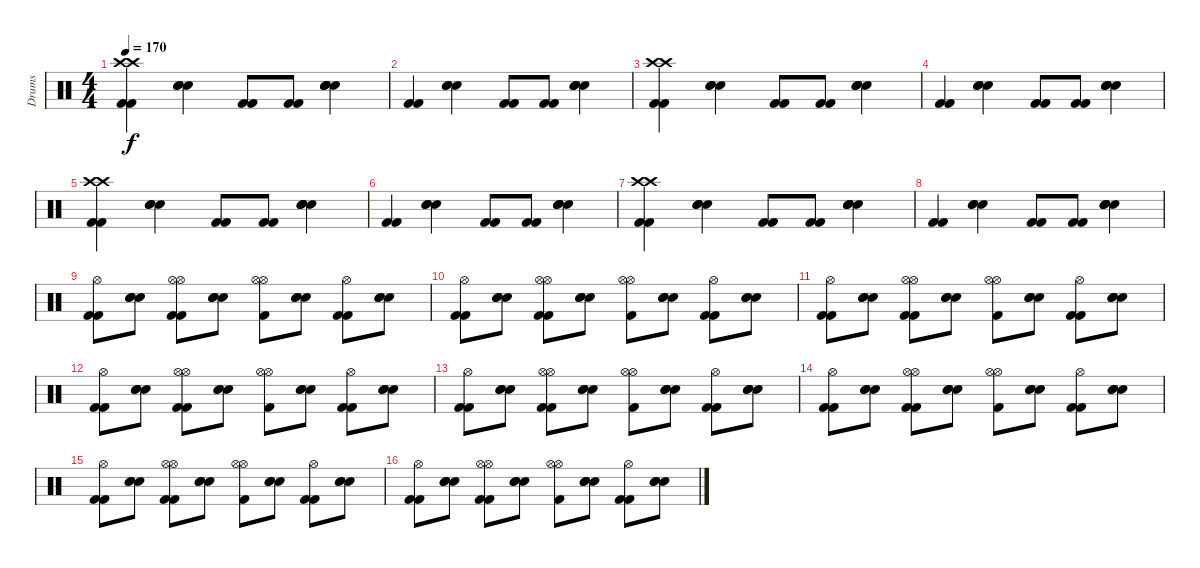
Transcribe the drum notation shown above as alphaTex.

\track ("Drums" "Drums") {instrument percussion}
\staff {score}
\articulation defaults
\ts (4 4)
\tempo 170
\clef neutral
\ks c
("Kick (hit) 2" "Kick (hit) 2" "Crash high (hit)" "Crash high (hit)").4{dy f} ("Snare (hit) 2" "Electric Snare (hit)" "Electric Snare (hit)").4 ("Kick (hit) 2" "Kick (hit) 2").8 ("Kick (hit) 2" "Kick (hit) 2").8 ("Snare (hit) 2" "Electric Snare (hit)" "Electric Snare (hit)" "Snare (hit) 2").4 |
("Kick (hit) 2" "Kick (hit) 2").4 ("Snare (hit) 2" "Electric Snare (hit)" "Electric Snare (hit)").4 ("Kick (hit) 2" "Kick (hit) 2").8 ("Kick (hit) 2" "Kick (hit) 2").8 ("Snare (hit) 2" "Electric Snare (hit)" "Electric Snare (hit)" "Snare (hit) 2").4 |
("Kick (hit) 2" "Kick (hit) 2" "Crash high (hit)" "Crash high (hit)").4 ("Snare (hit) 2" "Electric Snare (hit)" "Electric Snare (hit)").4 ("Kick (hit) 2" "Kick (hit) 2").8 ("Kick (hit) 2" "Kick (hit) 2").8 ("Snare (hit) 2" "Electric Snare (hit)" "Electric Snare (hit)" "Snare (hit) 2").4 |
("Kick (hit) 2" "Kick (hit) 2").4 ("Snare (hit) 2" "Electric Snare (hit)" "Electric Snare (hit)").4 ("Kick (hit) 2" "Kick (hit) 2").8 ("Kick (hit) 2" "Kick (hit) 2").8 ("Snare (hit) 2" "Electric Snare (hit)" "Electric Snare (hit)" "Snare (hit) 2").4 |
("Kick (hit) 2" "Kick (hit) 2" "Crash high (hit)" "Crash high (hit)").4 ("Snare (hit) 2" "Electric Snare (hit)" "Electric Snare (hit)").4 ("Kick (hit) 2" "Kick (hit) 2").8 ("Kick (hit) 2" "Kick (hit) 2").8 ("Snare (hit) 2" "Electric Snare (hit)" "Electric Snare (hit)" "Snare (hit) 2").4 |
("Kick (hit) 2" "Kick (hit) 2").4 ("Snare (hit) 2" "Electric Snare (hit)" "Electric Snare (hit)").4 ("Kick (hit) 2" "Kick (hit) 2").8 ("Kick (hit) 2" "Kick (hit) 2").8 ("Snare (hit) 2" "Electric Snare (hit)" "Electric Snare (hit)" "Snare (hit) 2").4 |
("Kick (hit) 2" "Kick (hit) 2" "Crash high (hit)" "Crash high (hit)").4 ("Snare (hit) 2" "Electric Snare (hit)" "Electric Snare (hit)").4 ("Kick (hit) 2" "Kick (hit) 2").8 ("Kick (hit) 2" "Kick (hit) 2").8 ("Snare (hit) 2" "Electric Snare (hit)" "Electric Snare (hit)" "Snare (hit) 2").4 |
("Kick (hit) 2" "Kick (hit) 2").4 ("Snare (hit) 2" "Electric Snare (hit)" "Electric Snare (hit)").4 ("Kick (hit) 2" "Kick (hit) 2").8 ("Kick (hit) 2" "Kick (hit) 2").8 ("Snare (hit) 2" "Electric Snare (hit)" "Electric Snare (hit)" "Snare (hit) 2").4 |
("Hi-Hat (open)" "Kick (hit) 2" "Kick (hit) 2").8 ("Electric Snare (hit)" "Electric Snare (hit)" "Snare (hit) 2").8 ("Hi-Hat (open)" "Hi-Hat (open)" "Kick (hit) 2" "Kick (hit) 2").8 ("Electric Snare (hit)" "Electric Snare (hit)" "Snare (hit) 2").8 ("Hi-Hat (open)" "Hi-Hat (open)" "Kick (hit) 2").8 ("Electric Snare (hit)" "Electric Snare (hit)" "Snare (hit) 2").8 ("Hi-Hat (open)" "Kick (hit) 2" "Kick (hit) 2").8 ("Electric Snare (hit)" "Electric Snare (hit)" "Snare (hit) 2").8 |
("Hi-Hat (open)" "Kick (hit) 2" "Kick (hit) 2").8 ("Electric Snare (hit)" "Electric Snare (hit)" "Snare (hit) 2").8 ("Hi-Hat (open)" "Hi-Hat (open)" "Kick (hit) 2" "Kick (hit) 2").8 ("Electric Snare (hit)" "Electric Snare (hit)" "Snare (hit) 2").8 ("Hi-Hat (open)" "Hi-Hat (open)" "Kick (hit) 2").8 ("Electric Snare (hit)" "Electric Snare (hit)" "Snare (hit) 2").8 ("Hi-Hat (open)" "Kick (hit) 2" "Kick (hit) 2").8 ("Electric Snare (hit)" "Electric Snare (hit)" "Snare (hit) 2").8 |
("Hi-Hat (open)" "Kick (hit) 2" "Kick (hit) 2").8 ("Electric Snare (hit)" "Electric Snare (hit)" "Snare (hit) 2").8 ("Hi-Hat (open)" "Hi-Hat (open)" "Kick (hit) 2" "Kick (hit) 2").8 ("Electric Snare (hit)" "Electric Snare (hit)" "Snare (hit) 2").8 ("Hi-Hat (open)" "Hi-Hat (open)" "Kick (hit) 2").8 ("Electric Snare (hit)" "Electric Snare (hit)" "Snare (hit) 2").8 ("Hi-Hat (open)" "Kick (hit) 2" "Kick (hit) 2").8 ("Electric Snare (hit)" "Electric Snare (hit)" "Snare (hit) 2").8 |
("Hi-Hat (open)" "Kick (hit) 2" "Kick (hit) 2").8 ("Electric Snare (hit)" "Electric Snare (hit)" "Snare (hit) 2").8 ("Hi-Hat (open)" "Hi-Hat (open)" "Kick (hit) 2" "Kick (hit) 2").8 ("Electric Snare (hit)" "Electric Snare (hit)" "Snare (hit) 2").8 ("Hi-Hat (open)" "Hi-Hat (open)" "Kick (hit) 2").8 ("Electric Snare (hit)" "Electric Snare (hit)" "Snare (hit) 2").8 ("Hi-Hat (open)" "Kick (hit) 2" "Kick (hit) 2").8 ("Electric Snare (hit)" "Electric Snare (hit)" "Snare (hit) 2").8 |
("Hi-Hat (open)" "Kick (hit) 2" "Kick (hit) 2").8 ("Electric Snare (hit)" "Electric Snare (hit)" "Snare (hit) 2").8 ("Hi-Hat (open)" "Hi-Hat (open)" "Kick (hit) 2" "Kick (hit) 2").8 ("Electric Snare (hit)" "Electric Snare (hit)" "Snare (hit) 2").8 ("Hi-Hat (open)" "Hi-Hat (open)" "Kick (hit) 2").8 ("Electric Snare (hit)" "Electric Snare (hit)" "Snare (hit) 2").8 ("Hi-Hat (open)" "Kick (hit) 2" "Kick (hit) 2").8 ("Electric Snare (hit)" "Electric Snare (hit)" "Snare (hit) 2").8 |
("Hi-Hat (open)" "Kick (hit) 2" "Kick (hit) 2").8 ("Electric Snare (hit)" "Electric Snare (hit)" "Snare (hit) 2").8 ("Hi-Hat (open)" "Hi-Hat (open)" "Kick (hit) 2" "Kick (hit) 2").8 ("Electric Snare (hit)" "Electric Snare (hit)" "Snare (hit) 2").8 ("Hi-Hat (open)" "Hi-Hat (open)" "Kick (hit) 2").8 ("Electric Snare (hit)" "Electric Snare (hit)" "Snare (hit) 2").8 ("Hi-Hat (open)" "Kick (hit) 2" "Kick (hit) 2").8 ("Electric Snare (hit)" "Electric Snare (hit)" "Snare (hit) 2").8 |
("Hi-Hat (open)" "Kick (hit) 2" "Kick (hit) 2").8 ("Electric Snare (hit)" "Electric Snare (hit)" "Snare (hit) 2").8 ("Hi-Hat (open)" "Hi-Hat (open)" "Kick (hit) 2" "Kick (hit) 2").8 ("Electric Snare (hit)" "Electric Snare (hit)" "Snare (hit) 2").8 ("Hi-Hat (open)" "Hi-Hat (open)" "Kick (hit) 2").8 ("Electric Snare (hit)" "Electric Snare (hit)" "Snare (hit) 2").8 ("Hi-Hat (open)" "Kick (hit) 2" "Kick (hit) 2").8 ("Electric Snare (hit)" "Electric Snare (hit)" "Snare (hit) 2").8 |
("Hi-Hat (open)" "Kick (hit) 2" "Kick (hit) 2").8 ("Electric Snare (hit)" "Electric Snare (hit)" "Snare (hit) 2").8 ("Hi-Hat (open)" "Hi-Hat (open)" "Kick (hit) 2" "Kick (hit) 2").8 ("Electric Snare (hit)" "Electric Snare (hit)" "Snare (hit) 2").8 ("Hi-Hat (open)" "Hi-Hat (open)" "Kick (hit) 2").8 ("Electric Snare (hit)" "Electric Snare (hit)" "Snare (hit) 2").8 ("Hi-Hat (open)" "Kick (hit) 2" "Kick (hit) 2").8 ("Electric Snare (hit)" "Electric Snare (hit)" "Snare (hit) 2").8
